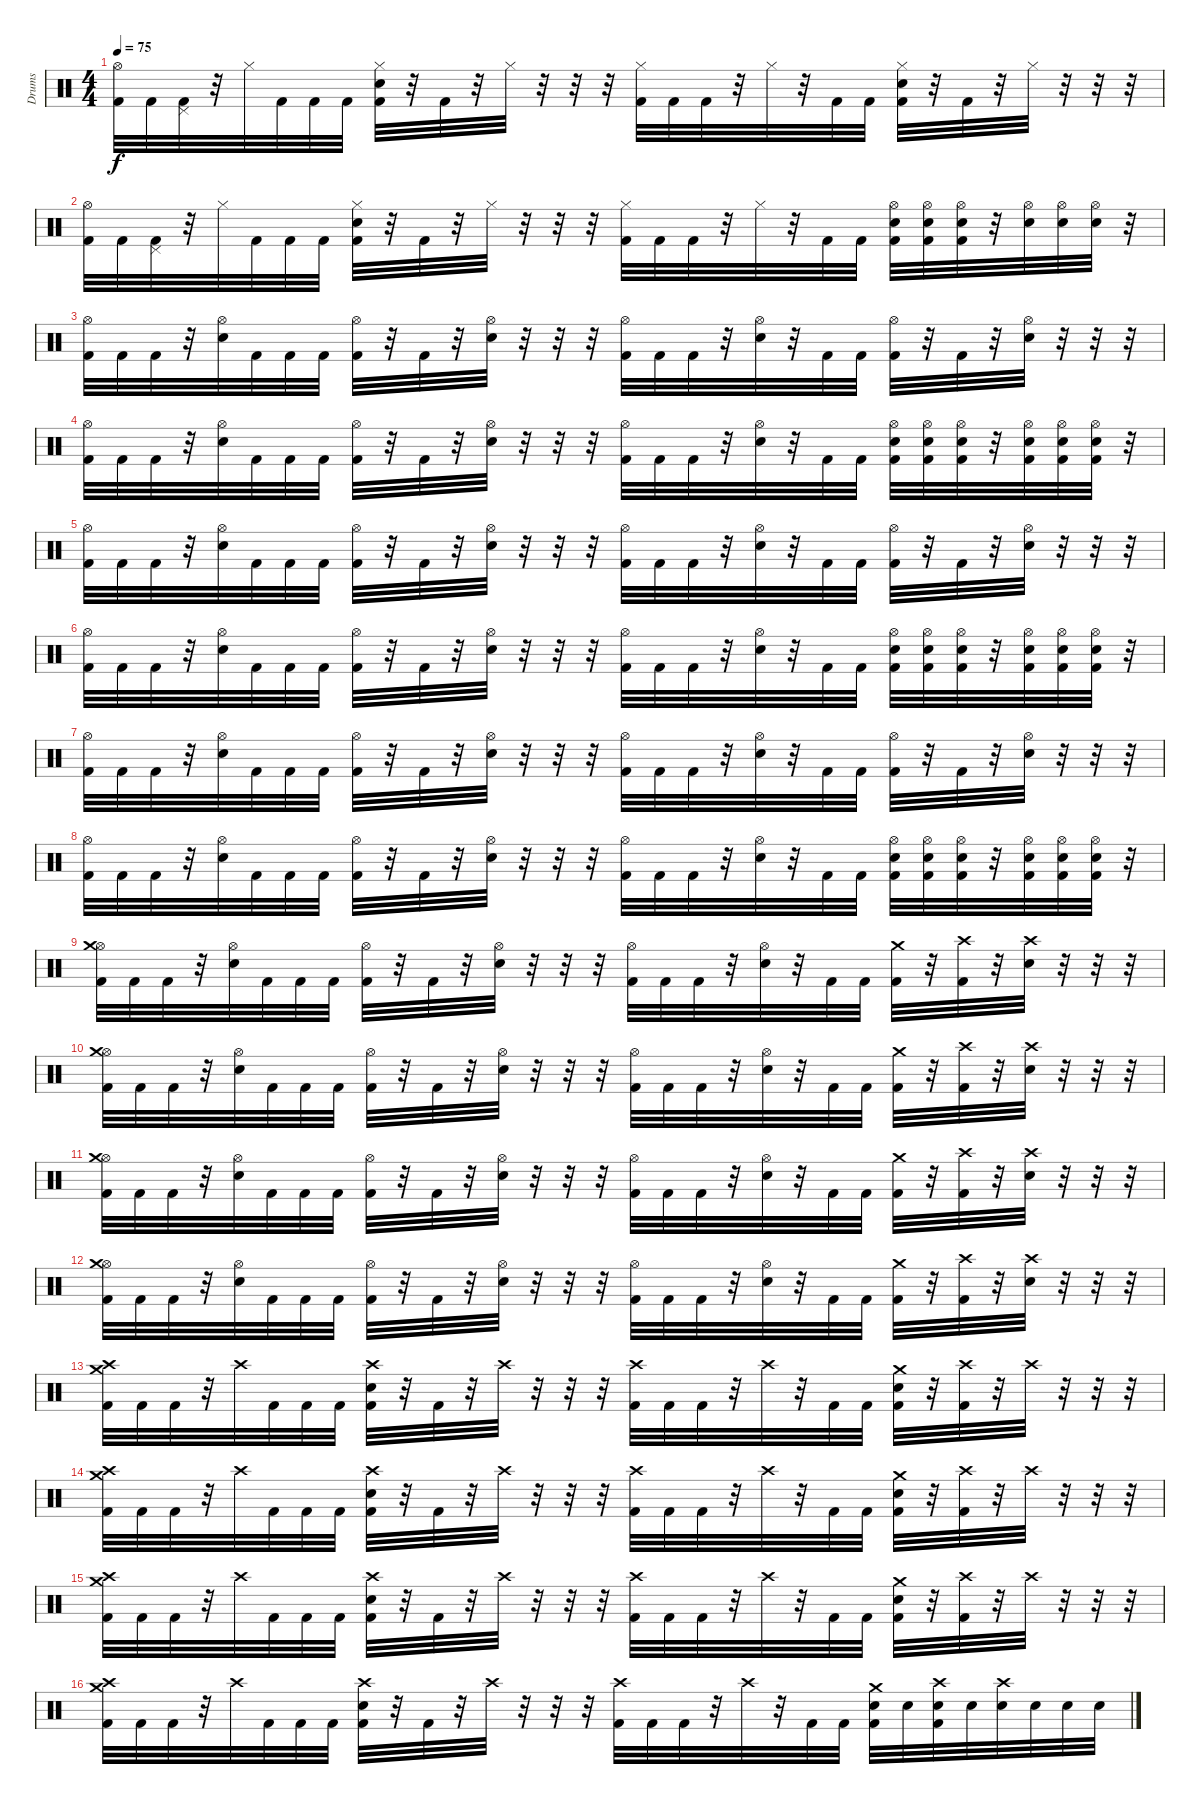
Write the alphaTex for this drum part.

\track ("Drums" "Drums") {instrument percussion}
\staff {score}
\articulation defaults
\ts (4 4)
\tempo 75
\clef neutral
\ks c
("Hi-Hat (open)" "Kick (hit) 2").32{dy f} "Kick (hit) 2".32 ("Pedal Hi-Hat (hit)" "Kick (hit) 2").32 r.32 "Hi-Hat (closed)".32 "Kick (hit) 2".32 "Kick (hit) 2".32 "Kick (hit) 2".32 ("Hi-Hat (closed)" "Electric Snare (hit)" "Kick (hit) 2").32 r.32 "Kick (hit) 2".32 r.32 "Hi-Hat (closed)".32 r.32 r.32 r.32 ("Hi-Hat (closed)" "Kick (hit) 2").32 "Kick (hit) 2".32 "Kick (hit) 2".32 r.32 "Hi-Hat (closed)".32 r.32 "Kick (hit) 2".32 "Kick (hit) 2".32 ("Hi-Hat (closed)" "Electric Snare (hit)" "Kick (hit) 2").32 r.32 "Kick (hit) 2".32 r.32 "Hi-Hat (closed)".32 r.32 r.32 r.32 |
("Hi-Hat (open)" "Kick (hit) 2").32 "Kick (hit) 2".32 ("Pedal Hi-Hat (hit)" "Kick (hit) 2").32 r.32 "Hi-Hat (closed)".32 "Kick (hit) 2".32 "Kick (hit) 2".32 "Kick (hit) 2".32 ("Hi-Hat (closed)" "Electric Snare (hit)" "Kick (hit) 2").32 r.32 "Kick (hit) 2".32 r.32 "Hi-Hat (closed)".32 r.32 r.32 r.32 ("Hi-Hat (closed)" "Kick (hit) 2").32 "Kick (hit) 2".32 "Kick (hit) 2".32 r.32 "Hi-Hat (closed)".32 r.32 "Kick (hit) 2".32 "Kick (hit) 2".32 ("Hi-Hat (open)" "Electric Snare (hit)" "Kick (hit) 2").32 ("Hi-Hat (open)" "Electric Snare (hit)" "Kick (hit) 2").32 ("Hi-Hat (open)" "Electric Snare (hit)" "Kick (hit) 2").32 r.32 ("Hi-Hat (open)" "Electric Snare (hit)").32 ("Hi-Hat (open)" "Electric Snare (hit)").32 ("Hi-Hat (open)" "Electric Snare (hit)").32 r.32 |
("Hi-Hat (open)" "Kick (hit) 2").32 "Kick (hit) 2".32 "Kick (hit) 2".32 r.32 ("Hi-Hat (open)" "Electric Snare (hit)").32 "Kick (hit) 2".32 "Kick (hit) 2".32 "Kick (hit) 2".32 ("Hi-Hat (open)" "Kick (hit) 2").32 r.32 "Kick (hit) 2".32 r.32 ("Hi-Hat (open)" "Electric Snare (hit)").32 r.32 r.32 r.32 ("Hi-Hat (open)" "Kick (hit) 2").32 "Kick (hit) 2".32 "Kick (hit) 2".32 r.32 ("Hi-Hat (open)" "Electric Snare (hit)").32 r.32 "Kick (hit) 2".32 "Kick (hit) 2".32 ("Hi-Hat (open)" "Kick (hit) 2").32 r.32 "Kick (hit) 2".32 r.32 ("Hi-Hat (open)" "Electric Snare (hit)").32 r.32 r.32 r.32 |
("Hi-Hat (open)" "Kick (hit) 2").32 "Kick (hit) 2".32 "Kick (hit) 2".32 r.32 ("Hi-Hat (open)" "Electric Snare (hit)").32 "Kick (hit) 2".32 "Kick (hit) 2".32 "Kick (hit) 2".32 ("Hi-Hat (open)" "Kick (hit) 2").32 r.32 "Kick (hit) 2".32 r.32 ("Hi-Hat (open)" "Electric Snare (hit)").32 r.32 r.32 r.32 ("Hi-Hat (open)" "Kick (hit) 2").32 "Kick (hit) 2".32 "Kick (hit) 2".32 r.32 ("Hi-Hat (open)" "Electric Snare (hit)").32 r.32 "Kick (hit) 2".32 "Kick (hit) 2".32 ("Hi-Hat (open)" "Electric Snare (hit)" "Kick (hit) 2").32 ("Hi-Hat (open)" "Electric Snare (hit)" "Kick (hit) 2").32 ("Hi-Hat (open)" "Electric Snare (hit)" "Kick (hit) 2").32 r.32 ("Hi-Hat (open)" "Electric Snare (hit)" "Kick (hit) 2").32 ("Hi-Hat (open)" "Electric Snare (hit)" "Kick (hit) 2").32 ("Hi-Hat (open)" "Electric Snare (hit)" "Kick (hit) 2").32 r.32 |
("Hi-Hat (open)" "Kick (hit) 2").32 "Kick (hit) 2".32 "Kick (hit) 2".32 r.32 ("Hi-Hat (open)" "Electric Snare (hit)").32 "Kick (hit) 2".32 "Kick (hit) 2".32 "Kick (hit) 2".32 ("Hi-Hat (open)" "Kick (hit) 2").32 r.32 "Kick (hit) 2".32 r.32 ("Hi-Hat (open)" "Electric Snare (hit)").32 r.32 r.32 r.32 ("Hi-Hat (open)" "Kick (hit) 2").32 "Kick (hit) 2".32 "Kick (hit) 2".32 r.32 ("Hi-Hat (open)" "Electric Snare (hit)").32 r.32 "Kick (hit) 2".32 "Kick (hit) 2".32 ("Hi-Hat (open)" "Kick (hit) 2").32 r.32 "Kick (hit) 2".32 r.32 ("Hi-Hat (open)" "Electric Snare (hit)").32 r.32 r.32 r.32 |
("Hi-Hat (open)" "Kick (hit) 2").32 "Kick (hit) 2".32 "Kick (hit) 2".32 r.32 ("Hi-Hat (open)" "Electric Snare (hit)").32 "Kick (hit) 2".32 "Kick (hit) 2".32 "Kick (hit) 2".32 ("Hi-Hat (open)" "Kick (hit) 2").32 r.32 "Kick (hit) 2".32 r.32 ("Hi-Hat (open)" "Electric Snare (hit)").32 r.32 r.32 r.32 ("Hi-Hat (open)" "Kick (hit) 2").32 "Kick (hit) 2".32 "Kick (hit) 2".32 r.32 ("Hi-Hat (open)" "Electric Snare (hit)").32 r.32 "Kick (hit) 2".32 "Kick (hit) 2".32 ("Hi-Hat (open)" "Electric Snare (hit)" "Kick (hit) 2").32 ("Hi-Hat (open)" "Electric Snare (hit)" "Kick (hit) 2").32 ("Hi-Hat (open)" "Electric Snare (hit)" "Kick (hit) 2").32 r.32 ("Hi-Hat (open)" "Electric Snare (hit)" "Kick (hit) 2").32 ("Hi-Hat (open)" "Electric Snare (hit)" "Kick (hit) 2").32 ("Hi-Hat (open)" "Electric Snare (hit)" "Kick (hit) 2").32 r.32 |
("Hi-Hat (open)" "Kick (hit) 2").32 "Kick (hit) 2".32 "Kick (hit) 2".32 r.32 ("Hi-Hat (open)" "Electric Snare (hit)").32 "Kick (hit) 2".32 "Kick (hit) 2".32 "Kick (hit) 2".32 ("Hi-Hat (open)" "Kick (hit) 2").32 r.32 "Kick (hit) 2".32 r.32 ("Hi-Hat (open)" "Electric Snare (hit)").32 r.32 r.32 r.32 ("Hi-Hat (open)" "Kick (hit) 2").32 "Kick (hit) 2".32 "Kick (hit) 2".32 r.32 ("Hi-Hat (open)" "Electric Snare (hit)").32 r.32 "Kick (hit) 2".32 "Kick (hit) 2".32 ("Hi-Hat (open)" "Kick (hit) 2").32 r.32 "Kick (hit) 2".32 r.32 ("Hi-Hat (open)" "Electric Snare (hit)").32 r.32 r.32 r.32 |
("Hi-Hat (open)" "Kick (hit) 2").32 "Kick (hit) 2".32 "Kick (hit) 2".32 r.32 ("Hi-Hat (open)" "Electric Snare (hit)").32 "Kick (hit) 2".32 "Kick (hit) 2".32 "Kick (hit) 2".32 ("Hi-Hat (open)" "Kick (hit) 2").32 r.32 "Kick (hit) 2".32 r.32 ("Hi-Hat (open)" "Electric Snare (hit)").32 r.32 r.32 r.32 ("Hi-Hat (open)" "Kick (hit) 2").32 "Kick (hit) 2".32 "Kick (hit) 2".32 r.32 ("Hi-Hat (open)" "Electric Snare (hit)").32 r.32 "Kick (hit) 2".32 "Kick (hit) 2".32 ("Hi-Hat (open)" "Electric Snare (hit)" "Kick (hit) 2").32 ("Hi-Hat (open)" "Electric Snare (hit)" "Kick (hit) 2").32 ("Hi-Hat (open)" "Electric Snare (hit)" "Kick (hit) 2").32 r.32 ("Hi-Hat (open)" "Electric Snare (hit)" "Kick (hit) 2").32 ("Hi-Hat (open)" "Electric Snare (hit)" "Kick (hit) 2").32 ("Hi-Hat (open)" "Electric Snare (hit)" "Kick (hit) 2").32 r.32 |
("Hi-Hat (open)" "Crash medium (hit)" "Kick (hit) 2").32 "Kick (hit) 2".32 "Kick (hit) 2".32 r.32 ("Hi-Hat (open)" "Electric Snare (hit)").32 "Kick (hit) 2".32 "Kick (hit) 2".32 "Kick (hit) 2".32 ("Hi-Hat (open)" "Kick (hit) 2").32 r.32 "Kick (hit) 2".32 r.32 ("Hi-Hat (open)" "Electric Snare (hit)").32 r.32 r.32 r.32 ("Hi-Hat (open)" "Kick (hit) 2").32 "Kick (hit) 2".32 "Kick (hit) 2".32 r.32 ("Hi-Hat (open)" "Electric Snare (hit)").32 r.32 "Kick (hit) 2".32 "Kick (hit) 2".32 ("Crash medium (hit)" "Kick (hit) 2").32 r.32 ("Crash high (hit)" "Kick (hit) 2").32 r.32 ("Crash high (hit)" "Electric Snare (hit)").32 r.32 r.32 r.32 |
("Hi-Hat (open)" "Crash medium (hit)" "Kick (hit) 2").32 "Kick (hit) 2".32 "Kick (hit) 2".32 r.32 ("Hi-Hat (open)" "Electric Snare (hit)").32 "Kick (hit) 2".32 "Kick (hit) 2".32 "Kick (hit) 2".32 ("Hi-Hat (open)" "Kick (hit) 2").32 r.32 "Kick (hit) 2".32 r.32 ("Hi-Hat (open)" "Electric Snare (hit)").32 r.32 r.32 r.32 ("Hi-Hat (open)" "Kick (hit) 2").32 "Kick (hit) 2".32 "Kick (hit) 2".32 r.32 ("Hi-Hat (open)" "Electric Snare (hit)").32 r.32 "Kick (hit) 2".32 "Kick (hit) 2".32 ("Crash medium (hit)" "Kick (hit) 2").32 r.32 ("Crash high (hit)" "Kick (hit) 2").32 r.32 ("Crash high (hit)" "Electric Snare (hit)").32 r.32 r.32 r.32 |
("Hi-Hat (open)" "Crash medium (hit)" "Kick (hit) 2").32 "Kick (hit) 2".32 "Kick (hit) 2".32 r.32 ("Hi-Hat (open)" "Electric Snare (hit)").32 "Kick (hit) 2".32 "Kick (hit) 2".32 "Kick (hit) 2".32 ("Hi-Hat (open)" "Kick (hit) 2").32 r.32 "Kick (hit) 2".32 r.32 ("Hi-Hat (open)" "Electric Snare (hit)").32 r.32 r.32 r.32 ("Hi-Hat (open)" "Kick (hit) 2").32 "Kick (hit) 2".32 "Kick (hit) 2".32 r.32 ("Hi-Hat (open)" "Electric Snare (hit)").32 r.32 "Kick (hit) 2".32 "Kick (hit) 2".32 ("Crash medium (hit)" "Kick (hit) 2").32 r.32 ("Crash high (hit)" "Kick (hit) 2").32 r.32 ("Crash high (hit)" "Electric Snare (hit)").32 r.32 r.32 r.32 |
("Hi-Hat (open)" "Crash medium (hit)" "Kick (hit) 2").32 "Kick (hit) 2".32 "Kick (hit) 2".32 r.32 ("Hi-Hat (open)" "Electric Snare (hit)").32 "Kick (hit) 2".32 "Kick (hit) 2".32 "Kick (hit) 2".32 ("Hi-Hat (open)" "Kick (hit) 2").32 r.32 "Kick (hit) 2".32 r.32 ("Hi-Hat (open)" "Electric Snare (hit)").32 r.32 r.32 r.32 ("Hi-Hat (open)" "Kick (hit) 2").32 "Kick (hit) 2".32 "Kick (hit) 2".32 r.32 ("Hi-Hat (open)" "Electric Snare (hit)").32 r.32 "Kick (hit) 2".32 "Kick (hit) 2".32 ("Crash medium (hit)" "Kick (hit) 2").32 r.32 ("Crash high (hit)" "Kick (hit) 2").32 r.32 ("Crash high (hit)" "Electric Snare (hit)").32 r.32 r.32 r.32 |
("Crash high (hit)" "Crash medium (hit)" "Kick (hit) 2").32 "Kick (hit) 2".32 "Kick (hit) 2".32 r.32 "Crash high (hit)".32 "Kick (hit) 2".32 "Kick (hit) 2".32 "Kick (hit) 2".32 ("Crash high (hit)" "Electric Snare (hit)" "Kick (hit) 2").32 r.32 "Kick (hit) 2".32 r.32 "Crash high (hit)".32 r.32 r.32 r.32 ("Crash high (hit)" "Kick (hit) 2").32 "Kick (hit) 2".32 "Kick (hit) 2".32 r.32 "Crash high (hit)".32 r.32 "Kick (hit) 2".32 "Kick (hit) 2".32 ("Crash medium (hit)" "Electric Snare (hit)" "Kick (hit) 2").32 r.32 ("Crash high (hit)" "Kick (hit) 2").32 r.32 "Crash high (hit)".32 r.32 r.32 r.32 |
("Crash high (hit)" "Crash medium (hit)" "Kick (hit) 2").32 "Kick (hit) 2".32 "Kick (hit) 2".32 r.32 "Crash high (hit)".32 "Kick (hit) 2".32 "Kick (hit) 2".32 "Kick (hit) 2".32 ("Crash high (hit)" "Electric Snare (hit)" "Kick (hit) 2").32 r.32 "Kick (hit) 2".32 r.32 "Crash high (hit)".32 r.32 r.32 r.32 ("Crash high (hit)" "Kick (hit) 2").32 "Kick (hit) 2".32 "Kick (hit) 2".32 r.32 "Crash high (hit)".32 r.32 "Kick (hit) 2".32 "Kick (hit) 2".32 ("Crash medium (hit)" "Electric Snare (hit)" "Kick (hit) 2").32 r.32 ("Crash high (hit)" "Kick (hit) 2").32 r.32 "Crash high (hit)".32 r.32 r.32 r.32 |
("Crash high (hit)" "Crash medium (hit)" "Kick (hit) 2").32 "Kick (hit) 2".32 "Kick (hit) 2".32 r.32 "Crash high (hit)".32 "Kick (hit) 2".32 "Kick (hit) 2".32 "Kick (hit) 2".32 ("Crash high (hit)" "Electric Snare (hit)" "Kick (hit) 2").32 r.32 "Kick (hit) 2".32 r.32 "Crash high (hit)".32 r.32 r.32 r.32 ("Crash high (hit)" "Kick (hit) 2").32 "Kick (hit) 2".32 "Kick (hit) 2".32 r.32 "Crash high (hit)".32 r.32 "Kick (hit) 2".32 "Kick (hit) 2".32 ("Crash medium (hit)" "Electric Snare (hit)" "Kick (hit) 2").32 r.32 ("Crash high (hit)" "Kick (hit) 2").32 r.32 "Crash high (hit)".32 r.32 r.32 r.32 |
("Crash high (hit)" "Crash medium (hit)" "Kick (hit) 2").32 "Kick (hit) 2".32 "Kick (hit) 2".32 r.32 "Crash high (hit)".32 "Kick (hit) 2".32 "Kick (hit) 2".32 "Kick (hit) 2".32 ("Crash high (hit)" "Electric Snare (hit)" "Kick (hit) 2").32 r.32 "Kick (hit) 2".32 r.32 "Crash high (hit)".32 r.32 r.32 r.32 ("Crash high (hit)" "Kick (hit) 2").32 "Kick (hit) 2".32 "Kick (hit) 2".32 r.32 "Crash high (hit)".32 r.32 "Kick (hit) 2".32 "Kick (hit) 2".32 ("Crash medium (hit)" "Electric Snare (hit)" "Kick (hit) 2").32 "Electric Snare (hit)".32 ("Crash high (hit)" "Electric Snare (hit)" "Kick (hit) 2").32 "Electric Snare (hit)".32 ("Crash high (hit)" "Electric Snare (hit)").32 "Electric Snare (hit)".32 "Electric Snare (hit)".32 "Electric Snare (hit)".32
